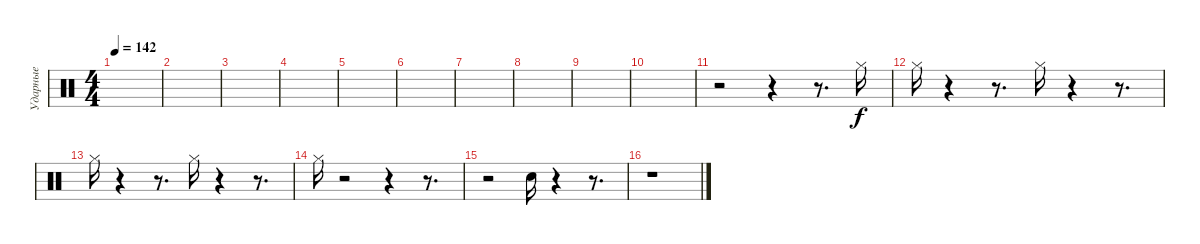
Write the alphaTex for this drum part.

\track ("Ударные" "Ударные") {instrument percussion}
\staff {score}
\articulation defaults
\ts (4 4)
\tempo 142
\clef neutral
\ks c
|
|
|
|
|
|
|
|
|
|
r.2 r.4 r.8{d} "Hi-Hat (closed)".16 |
"Hi-Hat (closed)".16 r.4 r.8{d} "Hi-Hat (closed)".16 r.4 r.8{d} |
"Hi-Hat (closed)".16 r.4 r.8{d} "Hi-Hat (closed)".16 r.4 r.8{d} |
"Hi-Hat (closed)".16 r.2 r.4 r.8{d} |
r.2 "Snare (hit) 2".16 r.4 r.8{d} |
r.1
